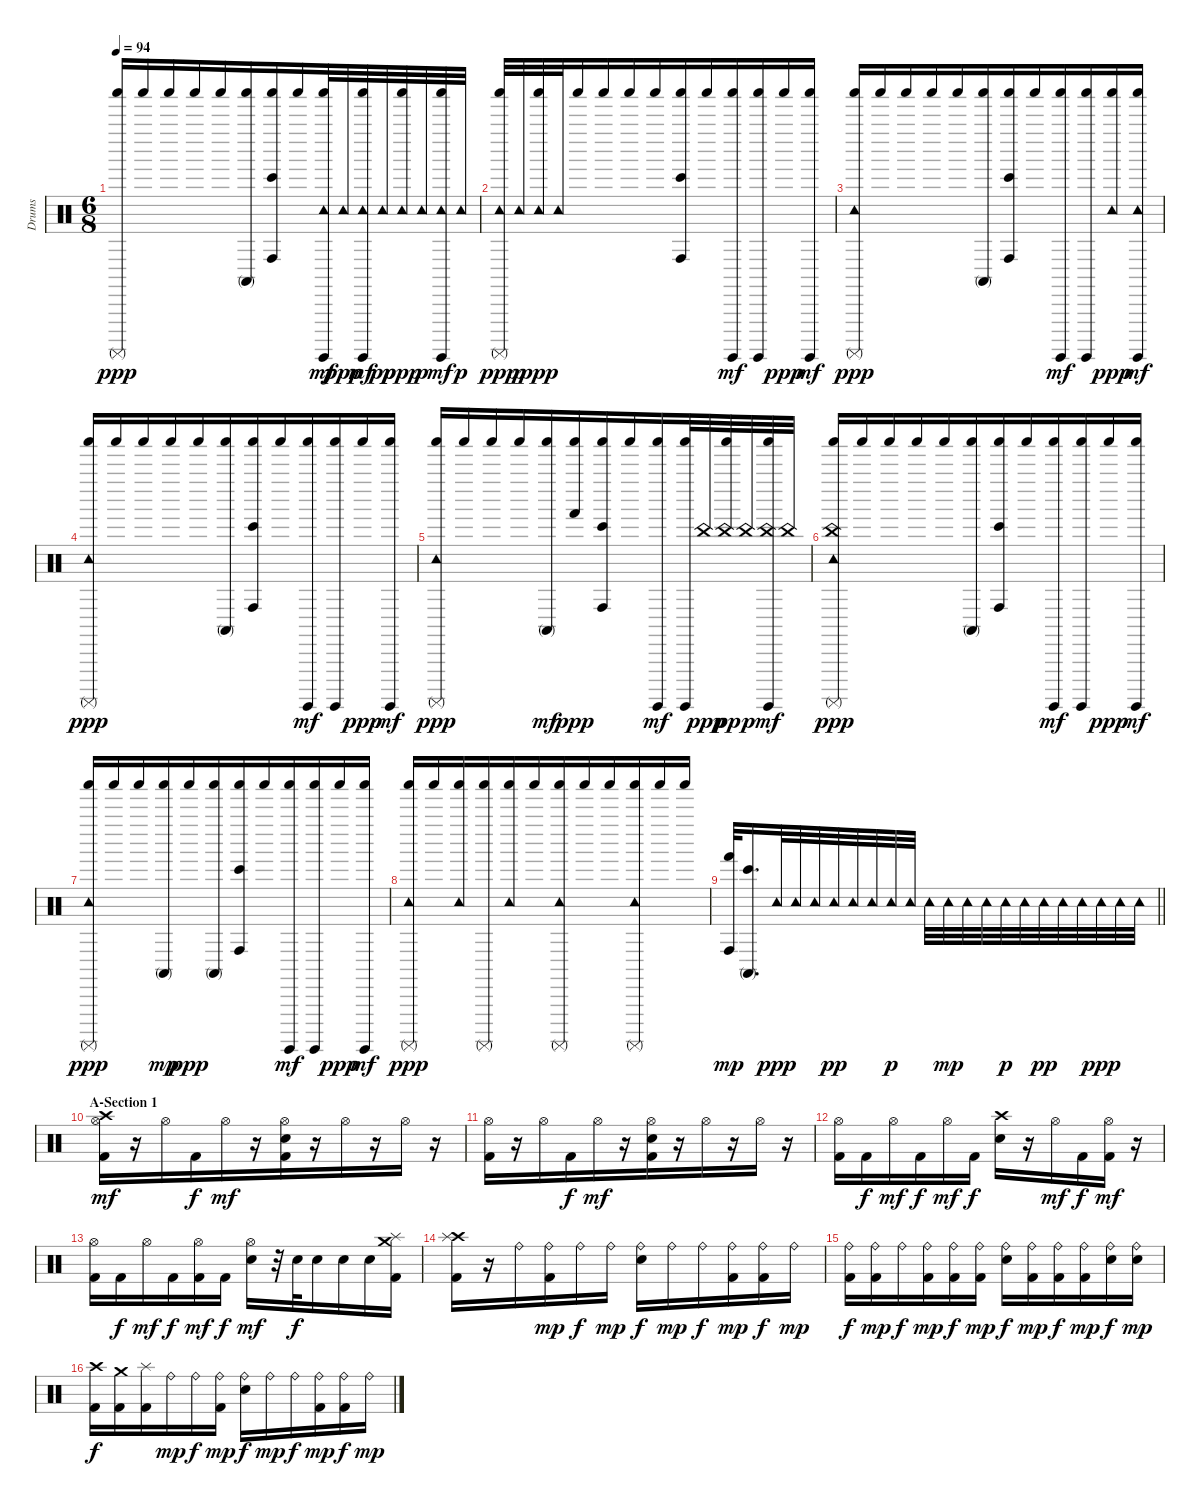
\track ("Drums" "Drums") {instrument percussion}
\staff {score}
\articulation defaults
\ts (6 8)
\tempo 94
\clef neutral
\ks c
("Shaker (hit)" "Surdo (mute)").16{dy ppp beam merge} "Shaker (hit)".16 "Shaker (hit)".16 "Shaker (hit)".16 "Shaker (hit)".16 ("Shaker (hit)" "Conga high (mute)").16{beam merge} ("Shaker (hit)" "Conga high (hit)" "Bongo High (hit)").16{beam merge} "Shaker (hit)".16 ("Tambourine (hit)" "Shaker (hit)" "Surdo (hit)").32{dy mf beam merge} "Tambourine (hit)".32{dy ppp} ("Tambourine (hit)" "Shaker (hit)" "Surdo (hit)").32{dy mf} "Tambourine (hit)".32{dy pp} ("Tambourine (hit)" "Shaker (hit)").32{dy ppp beam merge} "Tambourine (hit)".32{dy p beam merge} ("Tambourine (hit)" "Shaker (hit)" "Surdo (hit)").32{dy mf beam merge} "Tambourine (hit)".32{dy p} |
("Tambourine (hit)" "Shaker (hit)" "Surdo (mute)").32{dy ppp} "Tambourine (hit)".32{dy p beam merge} ("Tambourine (hit)" "Shaker (hit)").32{dy ppp} "Tambourine (hit)".32 "Shaker (hit)".16 "Shaker (hit)".16 "Shaker (hit)".16 "Shaker (hit)".16{beam merge} ("Shaker (hit)" "Conga high (hit)" "Bongo High (hit)").16{beam merge} "Shaker (hit)".16 ("Shaker (hit)" "Surdo (hit)").16{dy mf} ("Shaker (hit)" "Surdo (hit)").16 "Shaker (hit)".16{dy ppp beam merge} ("Shaker (hit)" "Surdo (hit)").16{dy mf} |
("Tambourine (hit)" "Shaker (hit)" "Surdo (mute)").16{dy ppp beam merge} "Shaker (hit)".16 "Shaker (hit)".16 "Shaker (hit)".16 "Shaker (hit)".16 ("Shaker (hit)" "Conga high (mute)").16{beam merge} ("Shaker (hit)" "Conga high (hit)" "Bongo High (hit)").16{beam merge} "Shaker (hit)".16 ("Shaker (hit)" "Surdo (hit)").16{dy mf} ("Shaker (hit)" "Surdo (hit)").16 ("Tambourine (hit)" "Shaker (hit)").16{dy ppp beam merge} ("Tambourine (hit)" "Shaker (hit)" "Surdo (hit)").16{dy mf} |
("Tambourine (hit)" "Shaker (hit)" "Surdo (mute)").16{dy ppp beam merge} "Shaker (hit)".16 "Shaker (hit)".16 "Shaker (hit)".16 "Shaker (hit)".16 ("Shaker (hit)" "Conga high (mute)").16{beam merge} ("Shaker (hit)" "Conga high (hit)" "Bongo High (hit)").16{beam merge} "Shaker (hit)".16 ("Shaker (hit)" "Surdo (hit)").16{dy mf} ("Shaker (hit)" "Surdo (hit)").16 "Shaker (hit)".16{dy ppp beam merge} ("Shaker (hit)" "Surdo (hit)").16{dy mf} |
("Tambourine (hit)" "Shaker (hit)" "Surdo (mute)").16{dy ppp beam merge} "Shaker (hit)".16 "Shaker (hit)".16 "Shaker (hit)".16 ("Shaker (hit)" "Conga high (mute)").16{dy mf} ("Shaker (hit)" "Hand (hit)").16{dy ppp beam merge} ("Shaker (hit)" "Conga high (hit)" "Bongo High (hit)").16{beam merge} "Shaker (hit)".16 ("Shaker (hit)" "Surdo (hit)").16{dy mf} ("Shaker (hit)" "Surdo (hit)").32 "China (hit)".32{dy ppp} ("Shaker (hit)" "China (hit)").32{dy pp} "China (hit)".32{dy p beam merge} ("Shaker (hit)" "China (hit)" "Surdo (hit)").32{dy mf beam merge} "China (hit)".32 |
("Tambourine (hit)" "Shaker (hit)" "China (hit)" "Surdo (mute)").16{dy ppp beam merge} "Shaker (hit)".16 "Shaker (hit)".16 "Shaker (hit)".16 "Shaker (hit)".16 ("Shaker (hit)" "Conga high (mute)").16{beam merge} ("Shaker (hit)" "Conga high (hit)" "Bongo High (hit)").16{beam merge} "Shaker (hit)".16 ("Shaker (hit)" "Surdo (hit)").16{dy mf} ("Shaker (hit)" "Surdo (hit)").16 "Shaker (hit)".16{dy ppp beam merge} ("Shaker (hit)" "Surdo (hit)").16{dy mf} |
("Tambourine (hit)" "Shaker (hit)" "Surdo (mute)").16{dy ppp beam merge} "Shaker (hit)".16 "Shaker (hit)".16 ("Shaker (hit)" "Conga high (mute)").16{dy mp} "Shaker (hit)".16{dy ppp} ("Shaker (hit)" "Conga high (mute)").16{beam merge} ("Shaker (hit)" "Conga high (hit)" "Bongo High (hit)").16{beam merge} "Shaker (hit)".16 ("Shaker (hit)" "Surdo (hit)").16{dy mf} ("Shaker (hit)" "Surdo (hit)").16 "Shaker (hit)".16{dy ppp beam merge} ("Shaker (hit)" "Surdo (hit)").16{dy mf} |
("Tambourine (hit)" "Shaker (hit)" "Surdo (mute)").16{dy ppp beam merge} "Shaker (hit)".16 ("Tambourine (hit)" "Shaker (hit)").16 ("Shaker (hit)" "Surdo (mute)").16 ("Tambourine (hit)" "Shaker (hit)").16 "Shaker (hit)".16{beam merge} ("Tambourine (hit)" "Shaker (hit)" "Surdo (mute)").16{beam merge} "Shaker (hit)".16 "Shaker (hit)".16 ("Tambourine (hit)" "Shaker (hit)" "Surdo (mute)").16 "Shaker (hit)".16{beam merge} "Shaker (hit)".16 |
\barLineRight lightlight
("Conga high (hit)" "Hand (hit)").32{dy mp} ("Bongo High (hit)" "Conga high (mute)").16{d beam merge} "Tambourine (hit)".32{dy ppp} "Tambourine (hit)".32{beam merge} "Tambourine (hit)".32{beam merge} "Tambourine (hit)".32{dy pp} "Tambourine (hit)".32 "Tambourine (hit)".32 "Tambourine (hit)".32{dy p} "Tambourine (hit)".32 "Tambourine (hit)".32{beam merge} "Tambourine (hit)".32{dy mp beam merge} "Tambourine (hit)".32 "Tambourine (hit)".32{beam merge} "Tambourine (hit)".32{dy p beam merge} "Tambourine (hit)".32 "Tambourine (hit)".32{dy pp} "Tambourine (hit)".32 "Tambourine (hit)".32 "Tambourine (hit)".32{dy ppp} "Tambourine (hit)".32{beam merge} "Tambourine (hit)".32 |
\section ("" "A-Section 1")
("Crash high (hit)" "Hi-Hat (open)" "Kick (hit) 2").16{dy mf} r.16 "Hi-Hat (open)".16{beam merge} "Kick (hit) 2".16{dy f} "Hi-Hat (open)".16{dy mf beam merge} r.16 ("Hi-Hat (open)" "Snare (hit) 2" "Kick (hit) 2").16 r.16 "Hi-Hat (open)".16 r.16{beam merge} "Hi-Hat (open)".16{beam merge} r.16 |
("Hi-Hat (open)" "Kick (hit) 2").16 r.16 "Hi-Hat (open)".16{beam merge} "Kick (hit) 2".16{dy f} "Hi-Hat (open)".16{dy mf beam merge} r.16 ("Hi-Hat (open)" "Snare (hit) 2" "Kick (hit) 2").16 r.16 "Hi-Hat (open)".16 r.16{beam merge} "Hi-Hat (open)".16{beam merge} r.16 |
("Hi-Hat (open)" "Kick (hit) 2").16 "Kick (hit) 2".16{dy f} "Hi-Hat (open)".16{dy mf beam merge} "Kick (hit) 2".16{dy f} "Hi-Hat (open)".16{dy mf beam merge} "Kick (hit) 2".16{dy f} ("Crash high (hit)" "Snare (hit) 2").16 r.16 "Hi-Hat (open)".16{dy mf} "Kick (hit) 2".16{dy f beam merge} ("Hi-Hat (open)" "Kick (hit) 2").16{dy mf beam merge} r.16 |
("Hi-Hat (open)" "Kick (hit) 2").16 "Kick (hit) 2".16{dy f} "Hi-Hat (open)".16{dy mf beam merge} "Kick (hit) 2".16{dy f} ("Hi-Hat (open)" "Kick (hit) 2").16{dy mf beam merge} "Kick (hit) 2".16{dy f} ("Hi-Hat (open)" "Snare (hit) 2").16{dy mf beam merge} r.32 "Snare (hit) 2".32{dy f} "Snare (hit) 2".16{beam merge} "Snare (hit) 2".16{beam merge} "Snare (hit) 2".16 ("Crash medium (hit)" "Splash (hit)" "Kick (hit) 2").16 |
("Crash high (hit)" "Splash (hit)" "Kick (hit) 2").16{beam merge} r.16{beam merge} "Ride (bell)".16 ("Ride (bell)" "Kick (hit) 2").16{dy mp beam merge} "Ride (bell)".16{dy f} "Ride (bell)".16{dy mp} ("Ride (bell)" "Snare (hit) 2").16{dy f} "Ride (bell)".16{dy mp} "Ride (bell)".16{dy f beam merge} ("Ride (bell)" "Kick (hit) 2").16{dy mp beam merge} ("Ride (bell)" "Kick (hit) 2").16{dy f} "Ride (bell)".16{dy mp} |
("Ride (bell)" "Kick (hit) 2").16{dy f beam merge} ("Ride (bell)" "Kick (hit) 2").16{dy mp beam merge} "Ride (bell)".16{dy f} ("Ride (bell)" "Kick (hit) 2").16{dy mp beam merge} ("Ride (bell)" "Kick (hit) 2").16{dy f} ("Ride (bell)" "Kick (hit) 2").16{dy mp} ("Ride (bell)" "Snare (hit) 2").16{dy f} ("Ride (bell)" "Kick (hit) 2").16{dy mp} ("Ride (bell)" "Kick (hit) 2").16{dy f beam merge} ("Ride (bell)" "Kick (hit) 2").16{dy mp beam merge} ("Ride (bell)" "Snare (hit) 2").16{dy f} ("Ride (bell)" "Snare (hit) 2").16{dy mp} |
("Crash high (hit)" "Kick (hit) 2").16{dy f beam merge} ("Crash medium (hit)" "Kick (hit) 2").16{beam merge} ("Splash (hit)" "Kick (hit) 2").16 "Ride (bell)".16{dy mp beam merge} "Ride (bell)".16{dy f} ("Ride (bell)" "Kick (hit) 2").16{dy mp} ("Ride (bell)" "Snare (hit) 2").16{dy f} "Ride (bell)".16{dy mp} "Ride (bell)".16{dy f beam merge} ("Ride (bell)" "Kick (hit) 2").16{dy mp beam merge} ("Ride (bell)" "Kick (hit) 2").16{dy f} "Ride (bell)".16{dy mp}
